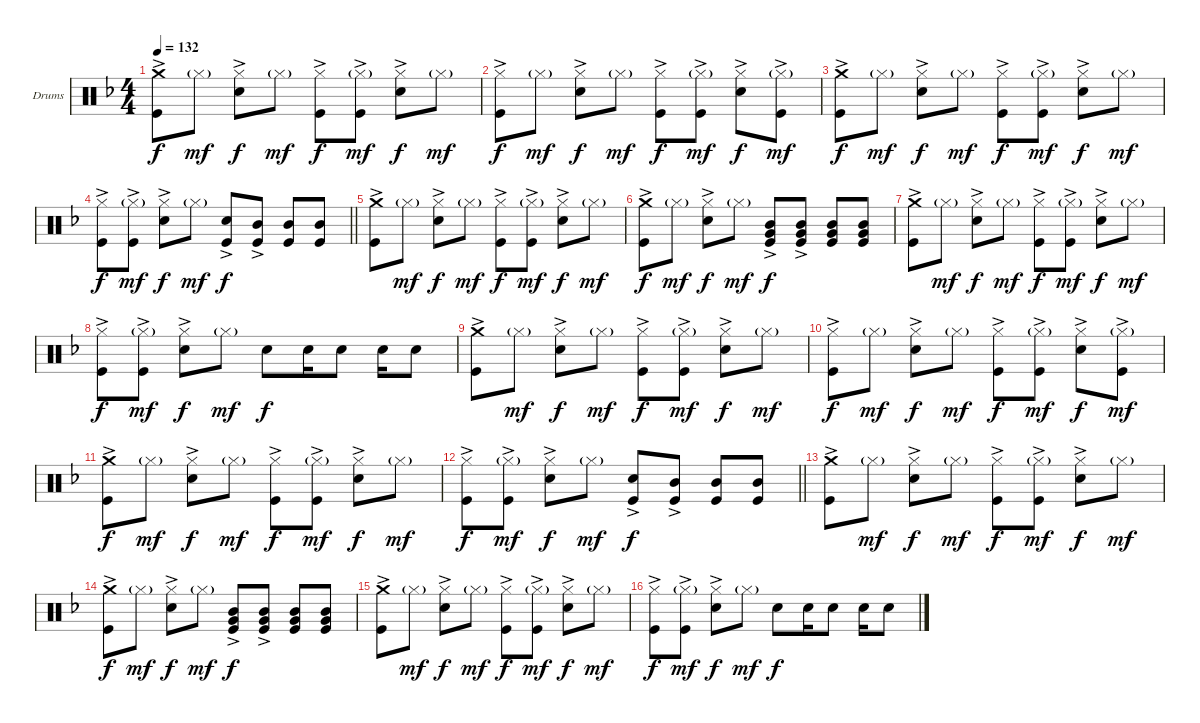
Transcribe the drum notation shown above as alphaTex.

\bracketExtendMode groupsimilarinstruments
\firstSystemTrackNameOrientation horizontal
\otherSystemsTrackNameOrientation horizontal
\track ("Drumkit" "Drums") {instrument percussion}
\staff {score}
\articulation defaults
\ts (4 4)
\tempo 132
\clef neutral
\ks f
("Crash medium (hit)" "Kick (hit)"{ac}).8{dy f} "Hi-Hat (closed)"{g}.8{dy mf} ("Hi-Hat (closed)" "Snare (hit) 2"{ac}).8{dy f} "Hi-Hat (closed)"{g}.8{dy mf} ("Hi-Hat (closed)" "Kick (hit)"{ac}).8{dy f} ("Hi-Hat (closed)"{g} "Kick (hit)"{ac}).8{dy mf} ("Hi-Hat (closed)" "Snare (hit) 2"{ac}).8{dy f} "Hi-Hat (closed)"{g}.8{dy mf} |
("Hi-Hat (closed)" "Kick (hit)"{ac}).8{dy f} "Hi-Hat (closed)"{g}.8{dy mf} ("Hi-Hat (closed)" "Snare (hit) 2"{ac}).8{dy f} "Hi-Hat (closed)"{g}.8{dy mf} ("Hi-Hat (closed)" "Kick (hit)"{ac}).8{dy f} ("Hi-Hat (closed)"{g} "Kick (hit)"{ac}).8{dy mf} ("Hi-Hat (closed)" "Snare (hit) 2"{ac}).8{dy f} ("Hi-Hat (closed)"{g} "Kick (hit)"{ac}).8{dy mf} |
("Crash medium (hit)" "Kick (hit)"{ac}).8{dy f} "Hi-Hat (closed)"{g}.8{dy mf} ("Hi-Hat (closed)" "Snare (hit) 2"{ac}).8{dy f} "Hi-Hat (closed)"{g}.8{dy mf} ("Hi-Hat (closed)" "Kick (hit)"{ac}).8{dy f} ("Hi-Hat (closed)"{g} "Kick (hit)"{ac}).8{dy mf} ("Hi-Hat (closed)" "Snare (hit) 2"{ac}).8{dy f} "Hi-Hat (closed)"{g}.8{dy mf} |
\barLineRight lightlight
("Hi-Hat (closed)" "Kick (hit)"{ac}).8{dy f} ("Hi-Hat (closed)"{g} "Kick (hit)"{ac}).8{dy mf} ("Hi-Hat (closed)" "Snare (hit) 2"{ac}).8{dy f} "Hi-Hat (closed)"{g}.8{dy mf} ("Snare (hit) 2"{ac} "Kick (hit)"{ac}).8{dy f} ("Mid Tom (hit)" "Kick (hit)"{ac}).8 ("Mid Tom (hit)" "Kick (hit)").8 ("Mid Tom (hit)" "Kick (hit)").8 |
("Crash medium (hit)" "Kick (hit)"{ac}).8 "Hi-Hat (closed)"{g}.8{dy mf} ("Hi-Hat (closed)" "Snare (hit) 2"{ac}).8{dy f} "Hi-Hat (closed)"{g}.8{dy mf} ("Hi-Hat (closed)" "Kick (hit)"{ac}).8{dy f} ("Hi-Hat (closed)"{g} "Kick (hit)"{ac}).8{dy mf} ("Hi-Hat (closed)" "Snare (hit) 2"{ac}).8{dy f} "Hi-Hat (closed)"{g}.8{dy mf} |
("Crash medium (hit)" "Kick (hit)"{ac}).8{dy f} "Hi-Hat (closed)"{g}.8{dy mf} ("Hi-Hat (closed)" "Snare (hit) 2"{ac}).8{dy f} "Hi-Hat (closed)"{g}.8{dy mf} ("Mid Tom (hit)" "Very Low Tom (hit)" "Kick (hit)"{ac}).8{dy f} ("Mid Tom (hit)" "Very Low Tom (hit)" "Kick (hit)"{ac}).8 ("Mid Tom (hit)" "Very Low Tom (hit)" "Kick (hit)").8 ("Mid Tom (hit)" "Very Low Tom (hit)" "Kick (hit)").8 |
("Crash medium (hit)" "Kick (hit)"{ac}).8 "Hi-Hat (closed)"{g}.8{dy mf} ("Hi-Hat (closed)" "Snare (hit) 2"{ac}).8{dy f} "Hi-Hat (closed)"{g}.8{dy mf} ("Hi-Hat (closed)" "Kick (hit)"{ac}).8{dy f} ("Hi-Hat (closed)"{g} "Kick (hit)"{ac}).8{dy mf} ("Hi-Hat (closed)" "Snare (hit) 2"{ac}).8{dy f} "Hi-Hat (closed)"{g}.8{dy mf} |
("Hi-Hat (closed)" "Kick (hit)"{ac}).8{dy f} ("Hi-Hat (closed)"{g} "Kick (hit)"{ac}).8{dy mf} ("Hi-Hat (closed)" "Snare (hit) 2"{ac}).8{dy f} "Hi-Hat (closed)"{g}.8{dy mf} "Snare (hit) 2".8{dy f} "Snare (hit) 2".16 "Snare (hit) 2".8 "Snare (hit) 2".16 "Snare (hit) 2".8 |
("Crash medium (hit)" "Kick (hit)"{ac}).8 "Hi-Hat (closed)"{g}.8{dy mf} ("Hi-Hat (closed)" "Snare (hit) 2"{ac}).8{dy f} "Hi-Hat (closed)"{g}.8{dy mf} ("Hi-Hat (closed)" "Kick (hit)"{ac}).8{dy f} ("Hi-Hat (closed)"{g} "Kick (hit)"{ac}).8{dy mf} ("Hi-Hat (closed)" "Snare (hit) 2"{ac}).8{dy f} "Hi-Hat (closed)"{g}.8{dy mf} |
("Hi-Hat (closed)" "Kick (hit)"{ac}).8{dy f} "Hi-Hat (closed)"{g}.8{dy mf} ("Hi-Hat (closed)" "Snare (hit) 2"{ac}).8{dy f} "Hi-Hat (closed)"{g}.8{dy mf} ("Hi-Hat (closed)" "Kick (hit)"{ac}).8{dy f} ("Hi-Hat (closed)"{g} "Kick (hit)"{ac}).8{dy mf} ("Hi-Hat (closed)" "Snare (hit) 2"{ac}).8{dy f} ("Hi-Hat (closed)"{g} "Kick (hit)"{ac}).8{dy mf} |
("Crash medium (hit)" "Kick (hit)"{ac}).8{dy f} "Hi-Hat (closed)"{g}.8{dy mf} ("Hi-Hat (closed)" "Snare (hit) 2"{ac}).8{dy f} "Hi-Hat (closed)"{g}.8{dy mf} ("Hi-Hat (closed)" "Kick (hit)"{ac}).8{dy f} ("Hi-Hat (closed)"{g} "Kick (hit)"{ac}).8{dy mf} ("Hi-Hat (closed)" "Snare (hit) 2"{ac}).8{dy f} "Hi-Hat (closed)"{g}.8{dy mf} |
\barLineRight lightlight
("Hi-Hat (closed)" "Kick (hit)"{ac}).8{dy f} ("Hi-Hat (closed)"{g} "Kick (hit)"{ac}).8{dy mf} ("Hi-Hat (closed)" "Snare (hit) 2"{ac}).8{dy f} "Hi-Hat (closed)"{g}.8{dy mf} ("Snare (hit) 2"{ac} "Kick (hit)"{ac}).8{dy f} ("Mid Tom (hit)" "Kick (hit)"{ac}).8 ("Mid Tom (hit)" "Kick (hit)").8 ("Mid Tom (hit)" "Kick (hit)").8 |
("Crash medium (hit)" "Kick (hit)"{ac}).8 "Hi-Hat (closed)"{g}.8{dy mf} ("Hi-Hat (closed)" "Snare (hit) 2"{ac}).8{dy f} "Hi-Hat (closed)"{g}.8{dy mf} ("Hi-Hat (closed)" "Kick (hit)"{ac}).8{dy f} ("Hi-Hat (closed)"{g} "Kick (hit)"{ac}).8{dy mf} ("Hi-Hat (closed)" "Snare (hit) 2"{ac}).8{dy f} "Hi-Hat (closed)"{g}.8{dy mf} |
("Crash medium (hit)" "Kick (hit)"{ac}).8{dy f} "Hi-Hat (closed)"{g}.8{dy mf} ("Hi-Hat (closed)" "Snare (hit) 2"{ac}).8{dy f} "Hi-Hat (closed)"{g}.8{dy mf} ("Mid Tom (hit)" "Very Low Tom (hit)" "Kick (hit)"{ac}).8{dy f} ("Mid Tom (hit)" "Very Low Tom (hit)" "Kick (hit)"{ac}).8 ("Mid Tom (hit)" "Very Low Tom (hit)" "Kick (hit)").8 ("Mid Tom (hit)" "Very Low Tom (hit)" "Kick (hit)").8 |
("Crash medium (hit)" "Kick (hit)"{ac}).8 "Hi-Hat (closed)"{g}.8{dy mf} ("Hi-Hat (closed)" "Snare (hit) 2"{ac}).8{dy f} "Hi-Hat (closed)"{g}.8{dy mf} ("Hi-Hat (closed)" "Kick (hit)"{ac}).8{dy f} ("Hi-Hat (closed)"{g} "Kick (hit)"{ac}).8{dy mf} ("Hi-Hat (closed)" "Snare (hit) 2"{ac}).8{dy f} "Hi-Hat (closed)"{g}.8{dy mf} |
("Hi-Hat (closed)" "Kick (hit)"{ac}).8{dy f} ("Hi-Hat (closed)"{g} "Kick (hit)"{ac}).8{dy mf} ("Hi-Hat (closed)" "Snare (hit) 2"{ac}).8{dy f} "Hi-Hat (closed)"{g}.8{dy mf} "Snare (hit) 2".8{dy f} "Snare (hit) 2".16 "Snare (hit) 2".8 "Snare (hit) 2".16 "Snare (hit) 2".8
